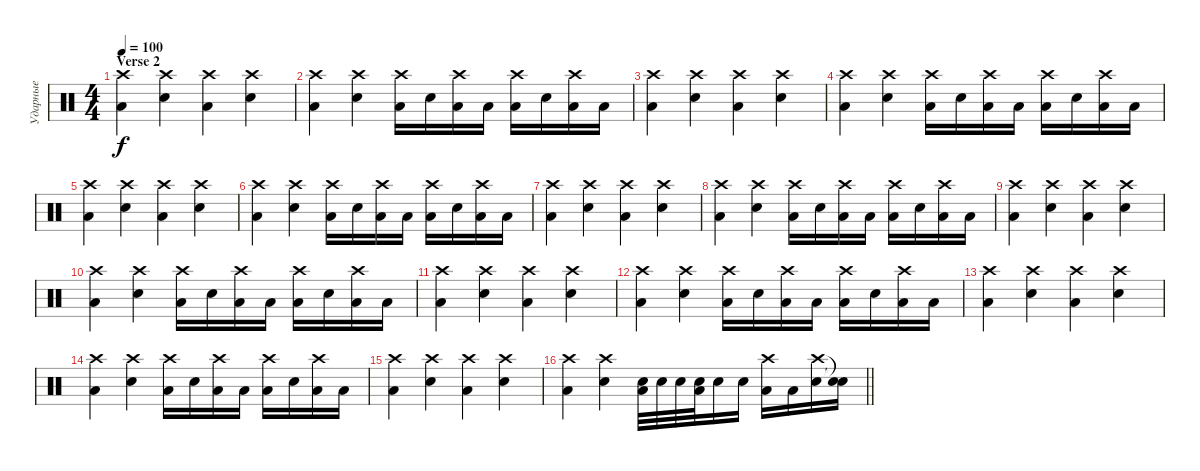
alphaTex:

\track ("Ударные" "Ударные") {instrument percussion}
\staff {score}
\articulation defaults
\ts (4 4)
\section ("" "Verse 2")
\tempo 100
\clef neutral
\ks c
("Low Floor Tom (hit)" "Crash high (hit)").4{dy f} ("Snare (hit) 2" "Crash high (hit)").4 ("Low Floor Tom (hit)" "Crash high (hit)").4 ("Snare (hit) 2" "Crash high (hit)").4 |
("Low Floor Tom (hit)" "Crash high (hit)").4 ("Snare (hit) 2" "Crash high (hit)").4 ("Low Floor Tom (hit)" "Crash high (hit)").16 "Snare (hit) 2".16 ("Low Floor Tom (hit)" "Crash high (hit)").16 "Low Floor Tom (hit)".16 ("Low Floor Tom (hit)" "Crash high (hit)").16 "Snare (hit) 2".16 ("Low Floor Tom (hit)" "Crash high (hit)").16 "Low Floor Tom (hit)".16 |
("Low Floor Tom (hit)" "Crash high (hit)").4 ("Snare (hit) 2" "Crash high (hit)").4 ("Low Floor Tom (hit)" "Crash high (hit)").4 ("Snare (hit) 2" "Crash high (hit)").4 |
("Low Floor Tom (hit)" "Crash high (hit)").4 ("Snare (hit) 2" "Crash high (hit)").4 ("Low Floor Tom (hit)" "Crash high (hit)").16 "Snare (hit) 2".16 ("Low Floor Tom (hit)" "Crash high (hit)").16 "Low Floor Tom (hit)".16 ("Low Floor Tom (hit)" "Crash high (hit)").16 "Snare (hit) 2".16 ("Low Floor Tom (hit)" "Crash high (hit)").16 "Low Floor Tom (hit)".16 |
("Low Floor Tom (hit)" "Crash high (hit)").4 ("Snare (hit) 2" "Crash high (hit)").4 ("Low Floor Tom (hit)" "Crash high (hit)").4 ("Snare (hit) 2" "Crash high (hit)").4 |
("Low Floor Tom (hit)" "Crash high (hit)").4 ("Snare (hit) 2" "Crash high (hit)").4 ("Low Floor Tom (hit)" "Crash high (hit)").16 "Snare (hit) 2".16 ("Low Floor Tom (hit)" "Crash high (hit)").16 "Low Floor Tom (hit)".16 ("Low Floor Tom (hit)" "Crash high (hit)").16 "Snare (hit) 2".16 ("Low Floor Tom (hit)" "Crash high (hit)").16 "Low Floor Tom (hit)".16 |
("Low Floor Tom (hit)" "Crash high (hit)").4 ("Snare (hit) 2" "Crash high (hit)").4 ("Low Floor Tom (hit)" "Crash high (hit)").4 ("Snare (hit) 2" "Crash high (hit)").4 |
("Low Floor Tom (hit)" "Crash high (hit)").4 ("Snare (hit) 2" "Crash high (hit)").4 ("Low Floor Tom (hit)" "Crash high (hit)").16 "Snare (hit) 2".16 ("Low Floor Tom (hit)" "Crash high (hit)").16 "Low Floor Tom (hit)".16 ("Low Floor Tom (hit)" "Crash high (hit)").16 "Snare (hit) 2".16 ("Low Floor Tom (hit)" "Crash high (hit)").16 "Low Floor Tom (hit)".16 |
("Low Floor Tom (hit)" "Crash high (hit)").4 ("Snare (hit) 2" "Crash high (hit)").4 ("Low Floor Tom (hit)" "Crash high (hit)").4 ("Snare (hit) 2" "Crash high (hit)").4 |
("Low Floor Tom (hit)" "Crash high (hit)").4 ("Snare (hit) 2" "Crash high (hit)").4 ("Low Floor Tom (hit)" "Crash high (hit)").16 "Snare (hit) 2".16 ("Low Floor Tom (hit)" "Crash high (hit)").16 "Low Floor Tom (hit)".16 ("Low Floor Tom (hit)" "Crash high (hit)").16 "Snare (hit) 2".16 ("Low Floor Tom (hit)" "Crash high (hit)").16 "Low Floor Tom (hit)".16 |
("Low Floor Tom (hit)" "Crash high (hit)").4 ("Snare (hit) 2" "Crash high (hit)").4 ("Low Floor Tom (hit)" "Crash high (hit)").4 ("Snare (hit) 2" "Crash high (hit)").4 |
("Low Floor Tom (hit)" "Crash high (hit)").4 ("Snare (hit) 2" "Crash high (hit)").4 ("Low Floor Tom (hit)" "Crash high (hit)").16 "Snare (hit) 2".16 ("Low Floor Tom (hit)" "Crash high (hit)").16 "Low Floor Tom (hit)".16 ("Low Floor Tom (hit)" "Crash high (hit)").16 "Snare (hit) 2".16 ("Low Floor Tom (hit)" "Crash high (hit)").16 "Low Floor Tom (hit)".16 |
("Low Floor Tom (hit)" "Crash high (hit)").4 ("Snare (hit) 2" "Crash high (hit)").4 ("Low Floor Tom (hit)" "Crash high (hit)").4 ("Snare (hit) 2" "Crash high (hit)").4 |
("Low Floor Tom (hit)" "Crash high (hit)").4 ("Snare (hit) 2" "Crash high (hit)").4 ("Low Floor Tom (hit)" "Crash high (hit)").16 "Snare (hit) 2".16 ("Low Floor Tom (hit)" "Crash high (hit)").16 "Low Floor Tom (hit)".16 ("Low Floor Tom (hit)" "Crash high (hit)").16 "Snare (hit) 2".16 ("Low Floor Tom (hit)" "Crash high (hit)").16 "Low Floor Tom (hit)".16 |
("Low Floor Tom (hit)" "Crash high (hit)").4 ("Snare (hit) 2" "Crash high (hit)").4 ("Low Floor Tom (hit)" "Crash high (hit)").4 ("Snare (hit) 2" "Crash high (hit)").4 |
\barLineRight lightlight
("Low Floor Tom (hit)" "Crash high (hit)").4 ("Snare (hit) 2" "Crash high (hit)").4 ("Low Floor Tom (hit)" "Snare (hit) 2").32 "Snare (hit) 2".32 "Snare (hit) 2".32 ("Low Floor Tom (hit)" "Snare (hit) 2").32 "Snare (hit) 2".16 "Snare (hit) 2".16 ("Low Floor Tom (hit)" "Crash high (hit)").16 "Low Floor Tom (hit)".16 ("Snare (hit) 2" "Crash high (hit)").16 ("Snare (hit)"{t} "Snare (hit)"{t}).16
